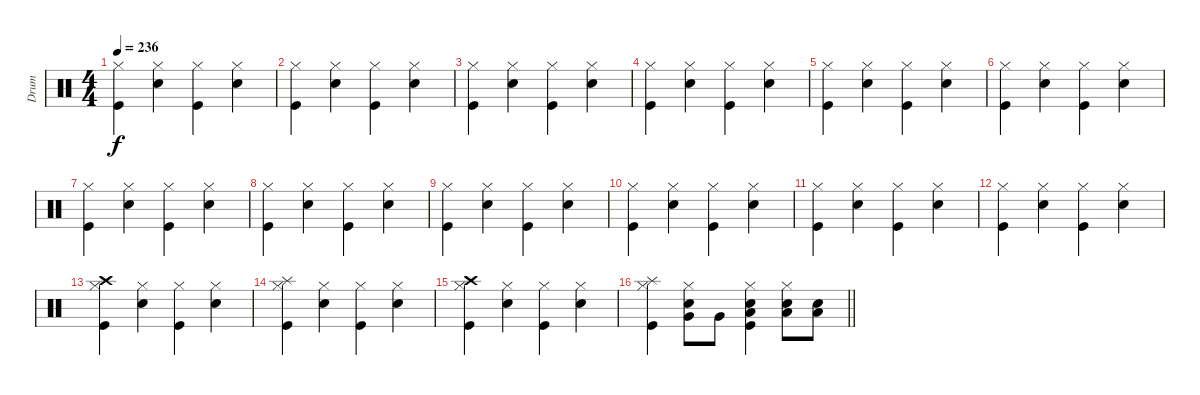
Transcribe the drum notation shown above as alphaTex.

\track ("Drum" "Drum") {instrument percussion}
\staff {score}
\articulation defaults
\ts (4 4)
\tempo 236
\clef neutral
\ks c
("Hi-Hat (closed)" "Kick (hit)").4{dy f} ("Hi-Hat (closed)" "Snare (hit) 2").4 ("Hi-Hat (closed)" "Kick (hit)").4 ("Hi-Hat (closed)" "Snare (hit) 2").4 |
("Hi-Hat (closed)" "Kick (hit)").4 ("Hi-Hat (closed)" "Snare (hit) 2").4 ("Hi-Hat (closed)" "Kick (hit)").4 ("Hi-Hat (closed)" "Snare (hit) 2").4 |
("Hi-Hat (closed)" "Kick (hit)").4 ("Hi-Hat (closed)" "Snare (hit) 2").4 ("Hi-Hat (closed)" "Kick (hit)").4 ("Hi-Hat (closed)" "Snare (hit) 2").4 |
("Hi-Hat (closed)" "Kick (hit)").4 ("Hi-Hat (closed)" "Snare (hit) 2").4 ("Hi-Hat (closed)" "Kick (hit)").4 ("Hi-Hat (closed)" "Snare (hit) 2").4 |
("Hi-Hat (closed)" "Kick (hit)").4 ("Hi-Hat (closed)" "Snare (hit) 2").4 ("Hi-Hat (closed)" "Kick (hit)").4 ("Hi-Hat (closed)" "Snare (hit) 2").4 |
("Hi-Hat (closed)" "Kick (hit)").4 ("Hi-Hat (closed)" "Snare (hit) 2").4 ("Hi-Hat (closed)" "Kick (hit)").4 ("Hi-Hat (closed)" "Snare (hit) 2").4 |
("Hi-Hat (closed)" "Kick (hit)").4 ("Hi-Hat (closed)" "Snare (hit) 2").4 ("Hi-Hat (closed)" "Kick (hit)").4 ("Hi-Hat (closed)" "Snare (hit) 2").4 |
("Hi-Hat (closed)" "Kick (hit)").4 ("Hi-Hat (closed)" "Snare (hit) 2").4 ("Hi-Hat (closed)" "Kick (hit)").4 ("Hi-Hat (closed)" "Snare (hit) 2").4 |
("Hi-Hat (closed)" "Kick (hit)").4 ("Hi-Hat (closed)" "Snare (hit) 2").4 ("Hi-Hat (closed)" "Kick (hit)").4 ("Hi-Hat (closed)" "Snare (hit) 2").4 |
("Hi-Hat (closed)" "Kick (hit)").4 ("Hi-Hat (closed)" "Snare (hit) 2").4 ("Hi-Hat (closed)" "Kick (hit)").4 ("Hi-Hat (closed)" "Snare (hit) 2").4 |
("Hi-Hat (closed)" "Kick (hit)").4 ("Hi-Hat (closed)" "Snare (hit) 2").4 ("Hi-Hat (closed)" "Kick (hit)").4 ("Hi-Hat (closed)" "Snare (hit) 2").4 |
("Hi-Hat (closed)" "Kick (hit)").4 ("Hi-Hat (closed)" "Snare (hit) 2").4 ("Hi-Hat (closed)" "Kick (hit)").4 ("Hi-Hat (closed)" "Snare (hit) 2").4 |
("Crash high (hit)" "Hi-Hat (closed)" "Kick (hit)").4 ("Hi-Hat (closed)" "Snare (hit) 2").4 ("Hi-Hat (closed)" "Kick (hit)").4 ("Hi-Hat (closed)" "Snare (hit) 2").4 |
("Splash (hit)" "Hi-Hat (closed)" "Kick (hit)").4 ("Hi-Hat (closed)" "Snare (hit) 2").4 ("Hi-Hat (closed)" "Kick (hit)").4 ("Hi-Hat (closed)" "Snare (hit) 2").4 |
("Crash high (hit)" "Hi-Hat (closed)" "Kick (hit)").4 ("Hi-Hat (closed)" "Snare (hit) 2").4 ("Hi-Hat (closed)" "Kick (hit)").4 ("Hi-Hat (closed)" "Snare (hit) 2").4 |
\barLineRight lightlight
("Splash (hit)" "Hi-Hat (closed)" "Kick (hit)").4 ("Hi-Hat (closed)" "Very Low Tom (hit)" "Snare (hit) 2").8 "Very Low Tom (hit)".8 ("Hi-Hat (closed)" "Low Floor Tom (hit)" "Snare (hit) 2" "Kick (hit)").4 ("Hi-Hat (closed)" "Low Floor Tom (hit)" "Snare (hit) 2").8 ("Low Floor Tom (hit)" "Snare (hit) 2").8
